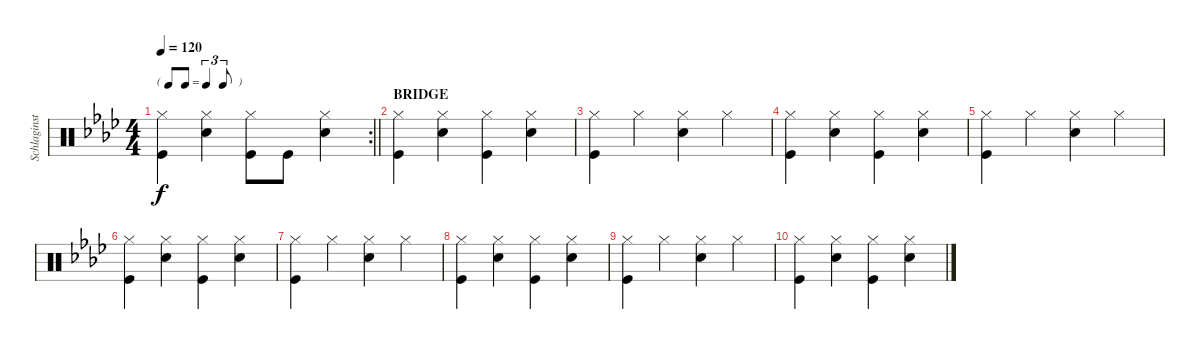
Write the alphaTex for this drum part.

\track ("Schlaginstrumente - Auswahl" "Schlaginst") {instrument percussion}
\staff {score}
\articulation defaults
\rc 2
\ts (4 4)
\tf triplet8th
\tempo 120
\clef neutral
\barLineRight lightlight
\ks ab
("Hi-Hat (closed)" "Kick (hit)").4{dy f} ("Hi-Hat (closed)" "Snare (hit) 2").4 ("Hi-Hat (closed)" "Kick (hit)").8 "Kick (hit)".8 ("Hi-Hat (closed)" "Snare (hit) 2").4 |
\section ("" "BRIDGE")
("Hi-Hat (closed)" "Kick (hit)").4 ("Hi-Hat (closed)" "Snare (hit) 2").4 ("Hi-Hat (closed)" "Kick (hit)").4 ("Hi-Hat (closed)" "Snare (hit) 2").4 |
("Hi-Hat (closed)" "Kick (hit)").4 "Hi-Hat (closed)".4 ("Hi-Hat (closed)" "Snare (hit) 2").4 "Hi-Hat (closed)".4 |
("Hi-Hat (closed)" "Kick (hit)").4 ("Hi-Hat (closed)" "Snare (hit) 2").4 ("Hi-Hat (closed)" "Kick (hit)").4 ("Hi-Hat (closed)" "Snare (hit) 2").4 |
("Hi-Hat (closed)" "Kick (hit)").4 "Hi-Hat (closed)".4 ("Hi-Hat (closed)" "Snare (hit) 2").4 "Hi-Hat (closed)".4 |
("Hi-Hat (closed)" "Kick (hit)").4 ("Hi-Hat (closed)" "Snare (hit) 2").4 ("Hi-Hat (closed)" "Kick (hit)").4 ("Hi-Hat (closed)" "Snare (hit) 2").4 |
("Hi-Hat (closed)" "Kick (hit)").4 "Hi-Hat (closed)".4 ("Hi-Hat (closed)" "Snare (hit) 2").4 "Hi-Hat (closed)".4 |
("Hi-Hat (closed)" "Kick (hit)").4 ("Hi-Hat (closed)" "Snare (hit) 2").4 ("Hi-Hat (closed)" "Kick (hit)").4 ("Hi-Hat (closed)" "Snare (hit) 2").4 |
("Hi-Hat (closed)" "Kick (hit)").4 "Hi-Hat (closed)".4 ("Hi-Hat (closed)" "Snare (hit) 2").4 "Hi-Hat (closed)".4 |
("Hi-Hat (closed)" "Kick (hit)").4 ("Hi-Hat (closed)" "Snare (hit) 2").4 ("Hi-Hat (closed)" "Kick (hit)").4 ("Hi-Hat (closed)" "Snare (hit) 2").4
